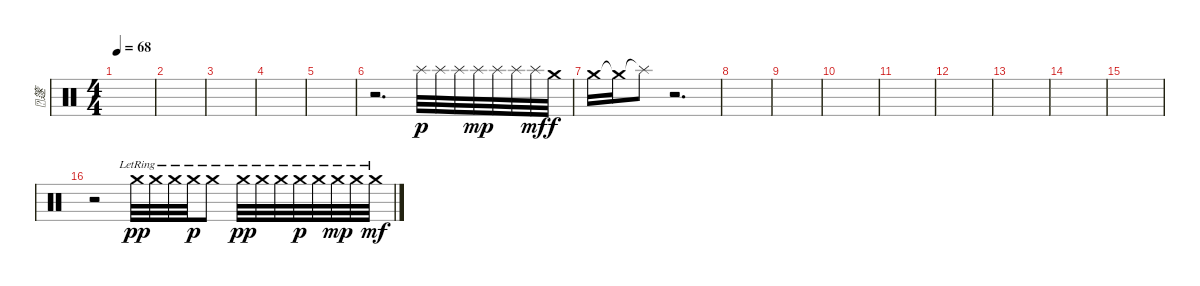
\track ("篴" "篴") {instrument percussion}
\staff {score}
\articulation defaults
\ts (4 4)
\tempo 68
\clef neutral
\ks c
|
|
|
|
|
r.2{d} "Splash (hit)".32{dy p} "Splash (hit)".32 "Splash (hit)".32 "Splash (hit)".32{dy mp} "Splash (hit)".32 "Splash (hit)".32 "Splash (hit)".32{dy mf} "Crash medium (hit)".32{dy f} |
"Crash medium (hit)".16 "Crash medium (hit)"{t}.16 "Splash (hit)"{t}.8 r.2{d} |
|
|
|
|
|
|
|
|
r.2 "Crash medium (hit)"{lr}.32{dy pp} "Crash medium (hit)"{lr}.32 "Crash medium (hit)"{lr}.32 "Crash medium (hit)"{lr}.32{dy p} "Crash medium (hit)"{lr}.8 "Crash medium (hit)"{lr}.32{dy pp} "Crash medium (hit)"{lr}.32 "Crash medium (hit)"{lr}.32 "Crash medium (hit)"{lr}.32{dy p} "Crash medium (hit)"{lr}.32 "Crash medium (hit)"{lr}.32{dy mp} "Crash medium (hit)"{lr}.32 "Crash medium (hit)"{lr}.32{dy mf}
